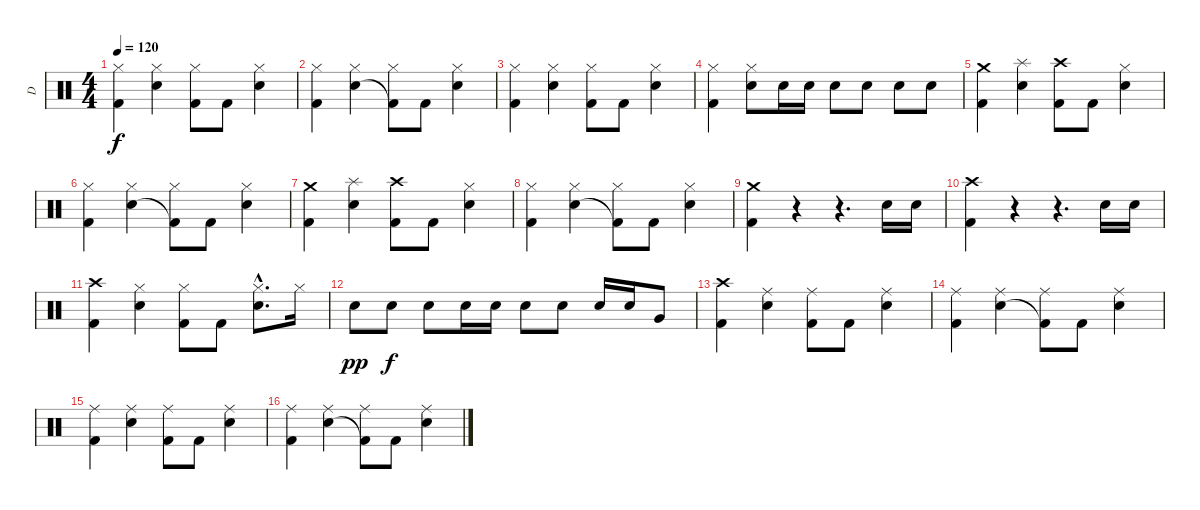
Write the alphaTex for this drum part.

\track ("D" "D") {instrument percussion}
\staff {score}
\articulation defaults
\ts (4 4)
\tempo 120
\clef neutral
\ks c
("Hi-Hat (closed)" "Kick (hit) 2").4{dy f} ("Hi-Hat (closed)" "Snare (hit) 2").4 ("Hi-Hat (closed)" "Kick (hit) 2").8 "Kick (hit) 2".8 ("Hi-Hat (closed)" "Snare (hit) 2").4 |
("Hi-Hat (closed)" "Kick (hit) 2").4 ("Hi-Hat (closed)" "Snare (hit) 2").4 ("Hi-Hat (closed)" "Kick (hit) 2"{t}).8 "Kick (hit) 2".8 ("Hi-Hat (closed)" "Snare (hit) 2").4 |
("Hi-Hat (closed)" "Kick (hit) 2").4 ("Hi-Hat (closed)" "Snare (hit) 2").4 ("Hi-Hat (closed)" "Kick (hit) 2").8 "Kick (hit) 2".8 ("Hi-Hat (closed)" "Snare (hit) 2").4 |
("Hi-Hat (closed)" "Kick (hit) 2").4 ("Hi-Hat (closed)" "Snare (hit) 2").8 "Snare (hit) 2".16 "Snare (hit) 2".16 "Snare (hit) 2".8 "Snare (hit) 2".8 "Snare (hit) 2".8 "Snare (hit) 2".8 |
("Crash medium (hit)" "Kick (hit) 2").4 ("Splash (hit)" "Snare (hit) 2").4 ("Crash high (hit)" "Kick (hit) 2").8 "Kick (hit) 2".8 ("Hi-Hat (closed)" "Snare (hit) 2").4 |
("Hi-Hat (closed)" "Kick (hit) 2").4 ("Hi-Hat (closed)" "Snare (hit) 2").4 ("Hi-Hat (closed)" "Kick (hit) 2"{t}).8 "Kick (hit) 2".8 ("Hi-Hat (closed)" "Snare (hit) 2").4 |
("Crash medium (hit)" "Kick (hit) 2").4 ("Splash (hit)" "Snare (hit) 2").4 ("Crash high (hit)" "Kick (hit) 2").8 "Kick (hit) 2".8 ("Hi-Hat (closed)" "Snare (hit) 2").4 |
("Hi-Hat (closed)" "Kick (hit) 2").4 ("Hi-Hat (closed)" "Snare (hit) 2").4 ("Hi-Hat (closed)" "Kick (hit) 2"{t}).8 "Kick (hit) 2".8 ("Hi-Hat (closed)" "Snare (hit) 2").4 |
("Crash medium (hit)" "Kick (hit) 2").4 r.4 r.4{d} "Snare (hit) 2".16 "Snare (hit) 2".16 |
("Crash high (hit)" "Kick (hit) 2").4 r.4 r.4{d} "Snare (hit) 2".16 "Snare (hit) 2".16 |
("Crash high (hit)" "Kick (hit) 2").4 ("Hi-Hat (closed)" "Snare (hit) 2").4 ("Hi-Hat (closed)" "Kick (hit) 2").8 "Kick (hit) 2".8 ("Hi-Hat (closed)"{hac} "Snare (hit) 2"{hac}).8{d} "Hi-Hat (closed)".16 |
"Snare (hit) 2".8{dy pp volume 16} "Snare (hit) 2".8{dy f} "Snare (hit) 2".8 "Snare (hit) 2".16{volume 11} "Snare (hit) 2".16 "Snare (hit) 2".8{volume 12} "Snare (hit) 2".8{volume 13} "Snare (hit) 2".16{volume 14} "Snare (hit) 2".16 "Very Low Tom (hit)".8 |
("Crash high (hit)" "Kick (hit) 2").4 ("Ride (middle)" "Snare (hit) 2").4 ("Ride (middle)" "Kick (hit) 2").8 "Kick (hit) 2".8 ("Ride (middle)" "Snare (hit) 2").4 |
("Ride (middle)" "Kick (hit) 2").4 ("Ride (middle)" "Snare (hit) 2").4 ("Ride (middle)" "Kick (hit) 2"{t}).8 "Kick (hit) 2".8 ("Ride (middle)" "Snare (hit) 2").4 |
("Ride (middle)" "Kick (hit) 2").4 ("Ride (middle)" "Snare (hit) 2").4 ("Ride (middle)" "Kick (hit) 2").8 "Kick (hit) 2".8 ("Ride (middle)" "Snare (hit) 2").4 |
("Ride (middle)" "Kick (hit) 2").4 ("Ride (middle)" "Snare (hit) 2").4 ("Ride (middle)" "Kick (hit) 2"{t}).8 "Kick (hit) 2".8 ("Ride (middle)" "Snare (hit) 2").4
